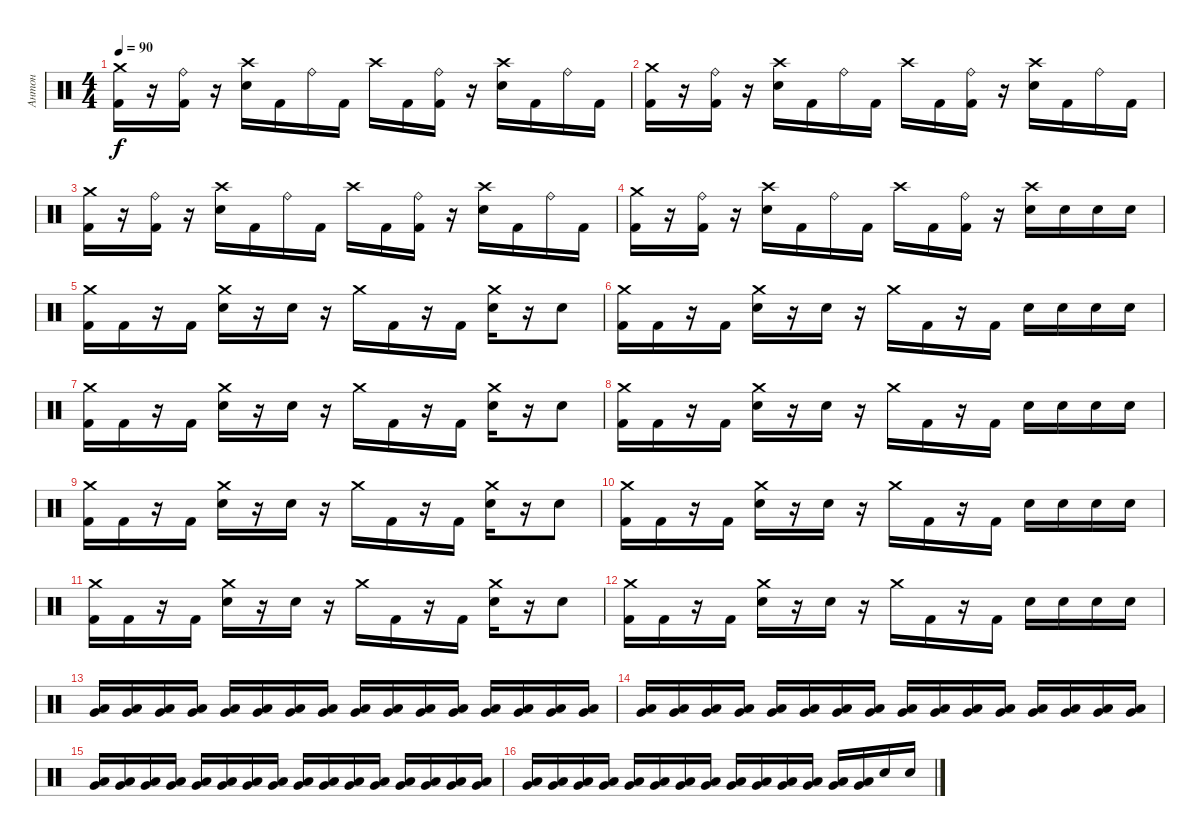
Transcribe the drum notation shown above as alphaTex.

\track ("Антон" "Антон") {instrument percussion}
\staff {score}
\articulation defaults
\ts (4 4)
\tempo 90
\clef neutral
\ks c
("Crash medium (hit)" "Kick (hit) 2").16{dy f} r.16 ("Ride (bell)" "Kick (hit) 2").16 r.16 ("Crash high (hit)" "Electric Snare (hit)").16 "Kick (hit) 2".16 "Ride (bell)".16 "Kick (hit) 2".16 "Crash high (hit)".16 "Kick (hit) 2".16 ("Ride (bell)" "Kick (hit) 2").16 r.16 ("Crash high (hit)" "Electric Snare (hit)").16 "Kick (hit) 2".16 "Ride (bell)".16 "Kick (hit) 2".16 |
("Crash medium (hit)" "Kick (hit) 2").16 r.16 ("Ride (bell)" "Kick (hit) 2").16 r.16 ("Crash high (hit)" "Electric Snare (hit)").16 "Kick (hit) 2".16 "Ride (bell)".16 "Kick (hit) 2".16 "Crash high (hit)".16 "Kick (hit) 2".16 ("Ride (bell)" "Kick (hit) 2").16 r.16 ("Crash high (hit)" "Electric Snare (hit)").16 "Kick (hit) 2".16 "Ride (bell)".16 "Kick (hit) 2".16 |
("Crash medium (hit)" "Kick (hit) 2").16 r.16 ("Ride (bell)" "Kick (hit) 2").16 r.16 ("Crash high (hit)" "Electric Snare (hit)").16 "Kick (hit) 2".16 "Ride (bell)".16 "Kick (hit) 2".16 "Crash high (hit)".16 "Kick (hit) 2".16 ("Ride (bell)" "Kick (hit) 2").16 r.16 ("Crash high (hit)" "Electric Snare (hit)").16 "Kick (hit) 2".16 "Ride (bell)".16 "Kick (hit) 2".16 |
("Crash medium (hit)" "Kick (hit) 2").16 r.16 ("Ride (bell)" "Kick (hit) 2").16 r.16 ("Crash high (hit)" "Electric Snare (hit)").16 "Kick (hit) 2".16 "Ride (bell)".16 "Kick (hit) 2".16 "Crash high (hit)".16 "Kick (hit) 2".16 ("Ride (bell)" "Kick (hit) 2").16 r.16 ("Crash high (hit)" "Electric Snare (hit)").16 "Electric Snare (hit)".16 "Electric Snare (hit)".16 "Electric Snare (hit)".16 |
("Crash medium (hit)" "Kick (hit) 2").16 "Kick (hit) 2".16 r.16 "Kick (hit) 2".16 ("Crash medium (hit)" "Electric Snare (hit)").16 r.16 "Electric Snare (hit)".16 r.16 "Crash medium (hit)".16 "Kick (hit) 2".16 r.16 "Kick (hit) 2".16 ("Crash medium (hit)" "Electric Snare (hit)").16 r.16 "Electric Snare (hit)".8 |
("Crash medium (hit)" "Kick (hit) 2").16 "Kick (hit) 2".16 r.16 "Kick (hit) 2".16 ("Crash medium (hit)" "Electric Snare (hit)").16 r.16 "Electric Snare (hit)".16 r.16 "Crash medium (hit)".16 "Kick (hit) 2".16 r.16 "Kick (hit) 2".16 "Electric Snare (hit)".16 "Electric Snare (hit)".16 "Electric Snare (hit)".16 "Electric Snare (hit)".16 |
("Crash medium (hit)" "Kick (hit) 2").16 "Kick (hit) 2".16 r.16 "Kick (hit) 2".16 ("Crash medium (hit)" "Electric Snare (hit)").16 r.16 "Electric Snare (hit)".16 r.16 "Crash medium (hit)".16 "Kick (hit) 2".16 r.16 "Kick (hit) 2".16 ("Crash medium (hit)" "Electric Snare (hit)").16 r.16 "Electric Snare (hit)".8 |
("Crash medium (hit)" "Kick (hit) 2").16 "Kick (hit) 2".16 r.16 "Kick (hit) 2".16 ("Crash medium (hit)" "Electric Snare (hit)").16 r.16 "Electric Snare (hit)".16 r.16 "Crash medium (hit)".16 "Kick (hit) 2".16 r.16 "Kick (hit) 2".16 "Electric Snare (hit)".16 "Electric Snare (hit)".16 "Electric Snare (hit)".16 "Electric Snare (hit)".16 |
("Crash medium (hit)" "Kick (hit) 2").16 "Kick (hit) 2".16 r.16 "Kick (hit) 2".16 ("Crash medium (hit)" "Electric Snare (hit)").16 r.16 "Electric Snare (hit)".16 r.16 "Crash medium (hit)".16 "Kick (hit) 2".16 r.16 "Kick (hit) 2".16 ("Crash medium (hit)" "Electric Snare (hit)").16 r.16 "Electric Snare (hit)".8 |
("Crash medium (hit)" "Kick (hit) 2").16 "Kick (hit) 2".16 r.16 "Kick (hit) 2".16 ("Crash medium (hit)" "Electric Snare (hit)").16 r.16 "Electric Snare (hit)".16 r.16 "Crash medium (hit)".16 "Kick (hit) 2".16 r.16 "Kick (hit) 2".16 "Electric Snare (hit)".16 "Electric Snare (hit)".16 "Electric Snare (hit)".16 "Electric Snare (hit)".16 |
("Crash medium (hit)" "Kick (hit) 2").16 "Kick (hit) 2".16 r.16 "Kick (hit) 2".16 ("Crash medium (hit)" "Electric Snare (hit)").16 r.16 "Electric Snare (hit)".16 r.16 "Crash medium (hit)".16 "Kick (hit) 2".16 r.16 "Kick (hit) 2".16 ("Crash medium (hit)" "Electric Snare (hit)").16 r.16 "Electric Snare (hit)".8 |
("Crash medium (hit)" "Kick (hit) 2").16 "Kick (hit) 2".16 r.16 "Kick (hit) 2".16 ("Crash medium (hit)" "Electric Snare (hit)").16 r.16 "Electric Snare (hit)".16 r.16 "Crash medium (hit)".16 "Kick (hit) 2".16 r.16 "Kick (hit) 2".16 "Electric Snare (hit)".16 "Electric Snare (hit)".16 "Electric Snare (hit)".16 "Electric Snare (hit)".16 |
("Very Low Tom (hit)" "Low Tom (hit)").16{volume 0} ("Very Low Tom (hit)" "Low Tom (hit)").16{volume 13} ("Very Low Tom (hit)" "Low Tom (hit)").16 ("Very Low Tom (hit)" "Low Tom (hit)").16 ("Very Low Tom (hit)" "Low Tom (hit)").16 ("Very Low Tom (hit)" "Low Tom (hit)").16 ("Very Low Tom (hit)" "Low Tom (hit)").16 ("Very Low Tom (hit)" "Low Tom (hit)").16 ("Very Low Tom (hit)" "Low Tom (hit)").16 ("Very Low Tom (hit)" "Low Tom (hit)").16 ("Very Low Tom (hit)" "Low Tom (hit)").16 ("Very Low Tom (hit)" "Low Tom (hit)").16 ("Very Low Tom (hit)" "Low Tom (hit)").16 ("Very Low Tom (hit)" "Low Tom (hit)").16 ("Very Low Tom (hit)" "Low Tom (hit)").16 ("Very Low Tom (hit)" "Low Tom (hit)").16 |
("Very Low Tom (hit)" "Low Tom (hit)").16 ("Very Low Tom (hit)" "Low Tom (hit)").16 ("Very Low Tom (hit)" "Low Tom (hit)").16 ("Very Low Tom (hit)" "Low Tom (hit)").16 ("Very Low Tom (hit)" "Low Tom (hit)").16 ("Very Low Tom (hit)" "Low Tom (hit)").16 ("Very Low Tom (hit)" "Low Tom (hit)").16 ("Very Low Tom (hit)" "Low Tom (hit)").16 ("Very Low Tom (hit)" "Low Tom (hit)").16 ("Very Low Tom (hit)" "Low Tom (hit)").16 ("Very Low Tom (hit)" "Low Tom (hit)").16 ("Very Low Tom (hit)" "Low Tom (hit)").16 ("Very Low Tom (hit)" "Low Tom (hit)").16 ("Very Low Tom (hit)" "Low Tom (hit)").16 ("Very Low Tom (hit)" "Low Tom (hit)").16 ("Very Low Tom (hit)" "Low Tom (hit)").16 |
("Very Low Tom (hit)" "Low Tom (hit)").16 ("Very Low Tom (hit)" "Low Tom (hit)").16 ("Very Low Tom (hit)" "Low Tom (hit)").16 ("Very Low Tom (hit)" "Low Tom (hit)").16 ("Very Low Tom (hit)" "Low Tom (hit)").16 ("Very Low Tom (hit)" "Low Tom (hit)").16 ("Very Low Tom (hit)" "Low Tom (hit)").16 ("Very Low Tom (hit)" "Low Tom (hit)").16 ("Very Low Tom (hit)" "Low Tom (hit)").16 ("Very Low Tom (hit)" "Low Tom (hit)").16 ("Very Low Tom (hit)" "Low Tom (hit)").16 ("Very Low Tom (hit)" "Low Tom (hit)").16 ("Very Low Tom (hit)" "Low Tom (hit)").16 ("Very Low Tom (hit)" "Low Tom (hit)").16 ("Very Low Tom (hit)" "Low Tom (hit)").16 ("Very Low Tom (hit)" "Low Tom (hit)").16 |
("Very Low Tom (hit)" "Low Tom (hit)").16 ("Very Low Tom (hit)" "Low Tom (hit)").16 ("Very Low Tom (hit)" "Low Tom (hit)").16 ("Very Low Tom (hit)" "Low Tom (hit)").16 ("Very Low Tom (hit)" "Low Tom (hit)").16 ("Very Low Tom (hit)" "Low Tom (hit)").16 ("Very Low Tom (hit)" "Low Tom (hit)").16 ("Very Low Tom (hit)" "Low Tom (hit)").16 ("Very Low Tom (hit)" "Low Tom (hit)").16 ("Very Low Tom (hit)" "Low Tom (hit)").16 ("Very Low Tom (hit)" "Low Tom (hit)").16 ("Very Low Tom (hit)" "Low Tom (hit)").16 ("Very Low Tom (hit)" "Low Tom (hit)").16 ("Very Low Tom (hit)" "Low Tom (hit)").16 "Electric Snare (hit)".16 "Electric Snare (hit)".16
